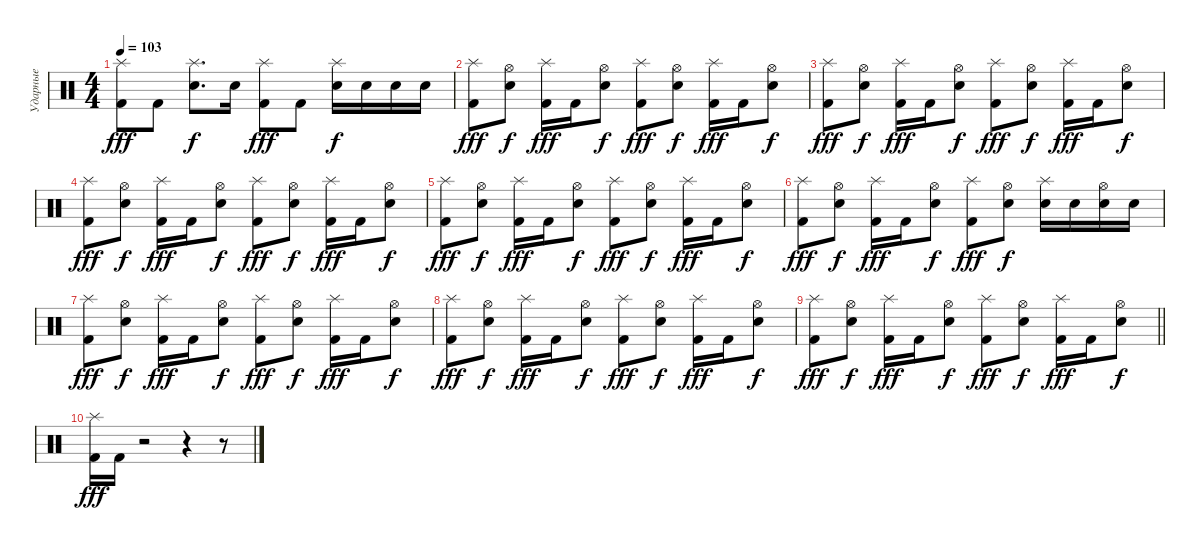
\track ("Ударные" "Ударные") {instrument percussion}
\staff {score}
\articulation defaults
\ts (4 4)
\tempo 103
\clef neutral
\ks c
("Splash (hit)" "Kick (hit) 2").8{dy fff} "Kick (hit) 2".8 ("Splash (hit)" "Electric Snare (hit)").8{d dy f} "Electric Snare (hit)".16 ("Splash (hit)" "Kick (hit) 2").8{dy fff} "Kick (hit) 2".8 ("Splash (hit)" "Electric Snare (hit)").16{dy f} "Electric Snare (hit)".16 "Electric Snare (hit)".16 "Electric Snare (hit)".16 |
("Splash (hit)" "Kick (hit) 2").8{dy fff} ("Hi-Hat (open)" "Electric Snare (hit)").8{dy f} ("Splash (hit)" "Kick (hit) 2").16{dy fff} "Kick (hit) 2".16 ("Hi-Hat (open)" "Electric Snare (hit)").8{dy f} ("Splash (hit)" "Kick (hit) 2").8{dy fff} ("Hi-Hat (open)" "Electric Snare (hit)").8{dy f} ("Splash (hit)" "Kick (hit) 2").16{dy fff} "Kick (hit) 2".16 ("Hi-Hat (open)" "Electric Snare (hit)").8{dy f} |
("Splash (hit)" "Kick (hit) 2").8{dy fff} ("Hi-Hat (open)" "Electric Snare (hit)").8{dy f} ("Splash (hit)" "Kick (hit) 2").16{dy fff} "Kick (hit) 2".16 ("Hi-Hat (open)" "Electric Snare (hit)").8{dy f} ("Splash (hit)" "Kick (hit) 2").8{dy fff} ("Hi-Hat (open)" "Electric Snare (hit)").8{dy f} ("Splash (hit)" "Kick (hit) 2").16{dy fff} "Kick (hit) 2".16 ("Hi-Hat (open)" "Electric Snare (hit)").8{dy f} |
("Splash (hit)" "Kick (hit) 2").8{dy fff} ("Hi-Hat (open)" "Electric Snare (hit)").8{dy f} ("Splash (hit)" "Kick (hit) 2").16{dy fff} "Kick (hit) 2".16 ("Hi-Hat (open)" "Electric Snare (hit)").8{dy f} ("Splash (hit)" "Kick (hit) 2").8{dy fff} ("Hi-Hat (open)" "Electric Snare (hit)").8{dy f} ("Splash (hit)" "Kick (hit) 2").16{dy fff} "Kick (hit) 2".16 ("Hi-Hat (open)" "Electric Snare (hit)").8{dy f} |
("Splash (hit)" "Kick (hit) 2").8{dy fff} ("Hi-Hat (open)" "Electric Snare (hit)").8{dy f} ("Splash (hit)" "Kick (hit) 2").16{dy fff} "Kick (hit) 2".16 ("Hi-Hat (open)" "Electric Snare (hit)").8{dy f} ("Splash (hit)" "Kick (hit) 2").8{dy fff} ("Hi-Hat (open)" "Electric Snare (hit)").8{dy f} ("Splash (hit)" "Kick (hit) 2").16{dy fff} "Kick (hit) 2".16 ("Hi-Hat (open)" "Electric Snare (hit)").8{dy f} |
("Splash (hit)" "Kick (hit) 2").8{dy fff} ("Hi-Hat (open)" "Electric Snare (hit)").8{dy f} ("Splash (hit)" "Kick (hit) 2").16{dy fff} "Kick (hit) 2".16 ("Hi-Hat (open)" "Electric Snare (hit)").8{dy f} ("Splash (hit)" "Kick (hit) 2").8{dy fff} ("Hi-Hat (open)" "Electric Snare (hit)").8{dy f} ("Splash (hit)" "Electric Snare (hit)").16 "Electric Snare (hit)".16 ("Hi-Hat (open)" "Electric Snare (hit)").16 "Electric Snare (hit)".16 |
("Splash (hit)" "Kick (hit) 2").8{dy fff} ("Hi-Hat (open)" "Electric Snare (hit)").8{dy f} ("Splash (hit)" "Kick (hit) 2").16{dy fff} "Kick (hit) 2".16 ("Hi-Hat (open)" "Electric Snare (hit)").8{dy f} ("Splash (hit)" "Kick (hit) 2").8{dy fff} ("Hi-Hat (open)" "Electric Snare (hit)").8{dy f} ("Splash (hit)" "Kick (hit) 2").16{dy fff} "Kick (hit) 2".16 ("Hi-Hat (open)" "Electric Snare (hit)").8{dy f} |
("Splash (hit)" "Kick (hit) 2").8{dy fff} ("Hi-Hat (open)" "Electric Snare (hit)").8{dy f} ("Splash (hit)" "Kick (hit) 2").16{dy fff} "Kick (hit) 2".16 ("Hi-Hat (open)" "Electric Snare (hit)").8{dy f} ("Splash (hit)" "Kick (hit) 2").8{dy fff} ("Hi-Hat (open)" "Electric Snare (hit)").8{dy f} ("Splash (hit)" "Kick (hit) 2").16{dy fff} "Kick (hit) 2".16 ("Hi-Hat (open)" "Electric Snare (hit)").8{dy f} |
\barLineRight lightlight
("Splash (hit)" "Kick (hit) 2").8{dy fff} ("Hi-Hat (open)" "Electric Snare (hit)").8{dy f} ("Splash (hit)" "Kick (hit) 2").16{dy fff} "Kick (hit) 2".16 ("Hi-Hat (open)" "Electric Snare (hit)").8{dy f} ("Splash (hit)" "Kick (hit) 2").8{dy fff} ("Hi-Hat (open)" "Electric Snare (hit)").8{dy f} ("Splash (hit)" "Kick (hit) 2").16{dy fff} "Kick (hit) 2".16 ("Hi-Hat (open)" "Electric Snare (hit)").8{dy f} |
("Splash (hit)" "Kick (hit) 2").16{dy fff} "Kick (hit) 2".16 r.2 r.4 r.8
